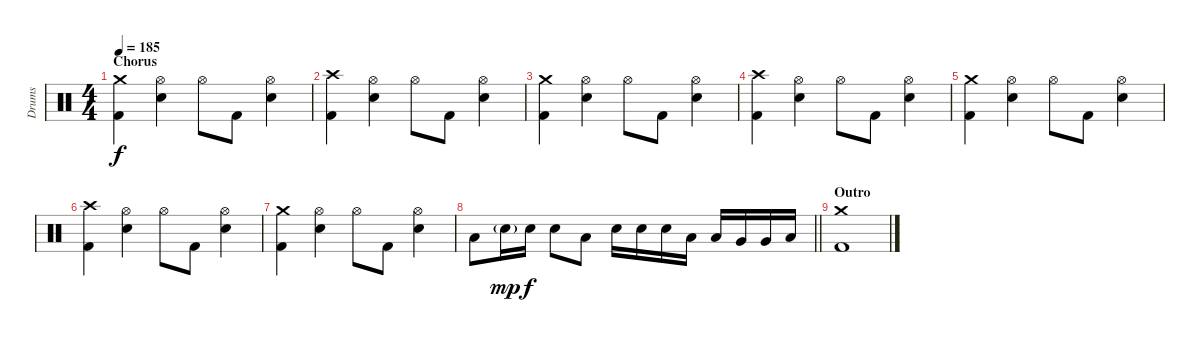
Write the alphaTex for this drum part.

\track ("Drums" "Drums") {instrument percussion}
\staff {score}
\articulation defaults
\ts (4 4)
\section ("" "Chorus")
\tempo 185
\clef neutral
\ks c
("Crash medium (hit)" "Kick (hit) 2").4{dy f} ("Hi-Hat (open)" "Electric Snare (hit)").4 "Hi-Hat (open)".8 "Kick (hit) 2".8 ("Hi-Hat (open)" "Electric Snare (hit)").4 |
("Crash high (hit)" "Kick (hit) 2").4 ("Hi-Hat (open)" "Electric Snare (hit)").4 "Hi-Hat (open)".8 "Kick (hit) 2".8 ("Hi-Hat (open)" "Electric Snare (hit)").4 |
("Crash medium (hit)" "Kick (hit) 2").4 ("Hi-Hat (open)" "Electric Snare (hit)").4 "Hi-Hat (open)".8 "Kick (hit) 2".8 ("Hi-Hat (open)" "Electric Snare (hit)").4 |
("Crash high (hit)" "Kick (hit) 2").4 ("Hi-Hat (open)" "Electric Snare (hit)").4 "Hi-Hat (open)".8 "Kick (hit) 2".8 ("Hi-Hat (open)" "Electric Snare (hit)").4 |
("Crash medium (hit)" "Kick (hit) 2").4 ("Hi-Hat (open)" "Electric Snare (hit)").4 "Hi-Hat (open)".8 "Kick (hit) 2".8 ("Hi-Hat (open)" "Electric Snare (hit)").4 |
("Crash high (hit)" "Kick (hit) 2").4 ("Hi-Hat (open)" "Electric Snare (hit)").4 "Hi-Hat (open)".8 "Kick (hit) 2".8 ("Hi-Hat (open)" "Electric Snare (hit)").4 |
("Crash medium (hit)" "Kick (hit) 2").4 ("Hi-Hat (open)" "Electric Snare (hit)").4 "Hi-Hat (open)".8 "Kick (hit) 2".8 ("Hi-Hat (open)" "Electric Snare (hit)").4 |
\barLineRight lightlight "Low Tom (hit)".8 "Electric Snare (hit)"{g}.16{dy mp} "Electric Snare (hit)".16{dy f} "Electric Snare (hit)".8 "Low Tom (hit)".8 "Electric Snare (hit)".16 "Electric Snare (hit)".16 "Electric Snare (hit)".16 "Low Tom (hit)".16 "Low Tom (hit)".16 "Very Low Tom (hit)".16 "Very Low Tom (hit)".16 "Low Floor Tom (hit)".16
|
\section ("" "Outro")
("Crash medium (hit)" "Kick (hit) 2").1
